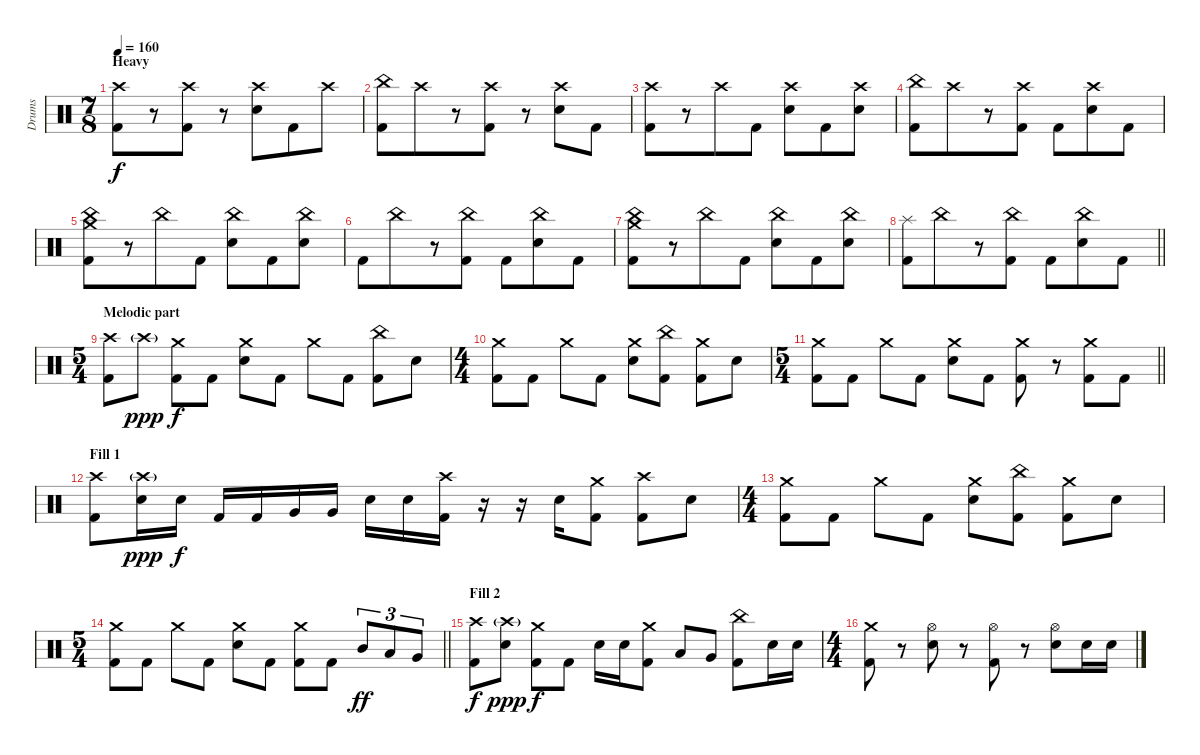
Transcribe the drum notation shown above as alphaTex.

\track ("Drums" "Drums") {instrument percussion}
\staff {score}
\articulation defaults
\ts (7 8)
\section ("" "Heavy")
\tempo 160
\clef neutral
\ks c
("Crash high (hit)" "Kick (hit) 2").8{dy f} r.8 ("Crash high (hit)" "Kick (hit) 2").8 r.8 ("Crash high (hit)" "Electric Snare (hit)").8 "Kick (hit) 2".8 "Crash high (hit)".8 |
("China (hit)" "Kick (hit) 2").8 "Crash high (hit)".8 r.8 ("Crash high (hit)" "Kick (hit) 2").8 r.8 ("Crash high (hit)" "Electric Snare (hit)").8 "Kick (hit) 2".8 |
("Crash high (hit)" "Kick (hit) 2").8 r.8 "Crash high (hit)".8 "Kick (hit) 2".8 ("Crash high (hit)" "Electric Snare (hit)").8 "Kick (hit) 2".8 ("Crash high (hit)" "Electric Snare (hit)").8 |
("China (hit)" "Kick (hit) 2").8 "Crash high (hit)".8 r.8 ("Crash high (hit)" "Kick (hit) 2").8 "Kick (hit) 2".8 ("Crash high (hit)" "Electric Snare (hit)").8 "Kick (hit) 2".8 |
("Crash medium (hit)" "China (hit)" "Kick (hit) 2").8 r.8 "China (hit)".8 "Kick (hit) 2".8 ("China (hit)" "Electric Snare (hit)").8 "Kick (hit) 2".8 ("China (hit)" "Electric Snare (hit)").8 |
"Kick (hit) 2".8 "China (hit)".8 r.8 ("China (hit)" "Kick (hit) 2").8 "Kick (hit) 2".8 ("China (hit)" "Electric Snare (hit)").8 "Kick (hit) 2".8 |
("Crash medium (hit)" "China (hit)" "Kick (hit) 2").8 r.8 "China (hit)".8 "Kick (hit) 2".8 ("China (hit)" "Electric Snare (hit)").8 "Kick (hit) 2".8 ("China (hit)" "Electric Snare (hit)").8 |
\barLineRight lightlight
("Splash (hit)" "Kick (hit) 2").8 "China (hit)".8 r.8 ("China (hit)" "Kick (hit) 2").8 "Kick (hit) 2".8 ("China (hit)" "Electric Snare (hit)").8 "Kick (hit) 2".8 |
\ts (5 4)
\section ("" "Melodic part")
("Crash high (hit)" "Kick (hit) 2").8 "Crash high (hit)"{g}.8{dy ppp} ("Crash medium (hit)" "Kick (hit) 2").8{dy f} "Kick (hit) 2".8 ("Crash medium (hit)" "Electric Snare (hit)").8 "Kick (hit) 2".8 "Crash medium (hit)".8 "Kick (hit) 2".8 ("China (hit)" "Kick (hit) 2").8 "Electric Snare (hit)".8 |
\ts (4 4)
("Crash medium (hit)" "Kick (hit) 2").8 "Kick (hit) 2".8 "Crash medium (hit)".8 "Kick (hit) 2".8 ("Crash medium (hit)" "Electric Snare (hit)").8 ("China (hit)" "Kick (hit) 2").8 ("Crash medium (hit)" "Kick (hit) 2").8 "Electric Snare (hit)".8 |
\ts (5 4)
\barLineRight lightlight
("Crash medium (hit)" "Kick (hit) 2").8 "Kick (hit) 2".8 "Crash medium (hit)".8 "Kick (hit) 2".8 ("Crash medium (hit)" "Electric Snare (hit)").8 "Kick (hit) 2".8 ("Crash medium (hit)" "Kick (hit) 2").8 r.8 ("Crash medium (hit)" "Kick (hit) 2").8 "Kick (hit) 2".8 |
\section ("" "Fill 1")
("Crash high (hit)" "Kick (hit) 2").8 ("Crash high (hit)"{g} "Electric Snare (hit)").16{dy ppp} "Electric Snare (hit)".16{dy f} "Kick (hit) 2".16 "Kick (hit) 2".16 "Very Low Tom (hit)".16 "Very Low Tom (hit)".16 "Electric Snare (hit)".16 "Electric Snare (hit)".16 ("Crash high (hit)" "Kick (hit) 2").16 r.16 r.16 "Electric Snare (hit)".16 ("Crash medium (hit)" "Kick (hit) 2").8 ("Crash high (hit)" "Kick (hit) 2").8 "Electric Snare (hit)".8 |
\ts (4 4)
("Crash medium (hit)" "Kick (hit) 2").8 "Kick (hit) 2".8 "Crash medium (hit)".8 "Kick (hit) 2".8 ("Crash medium (hit)" "Electric Snare (hit)").8 ("China (hit)" "Kick (hit) 2").8 ("Crash medium (hit)" "Kick (hit) 2").8 "Electric Snare (hit)".8 |
\ts (5 4)
\barLineRight lightlight
("Crash medium (hit)" "Kick (hit) 2").8 "Kick (hit) 2".8 "Crash medium (hit)".8 "Kick (hit) 2".8 ("Crash medium (hit)" "Electric Snare (hit)").8 "Kick (hit) 2".8 ("Crash medium (hit)" "Kick (hit) 2").8 "Kick (hit) 2".8 "Mid Tom (hit)".8{tu (3 2) dy ff} "Low Tom (hit)".8{tu (3 2)} "Very Low Tom (hit)".8{tu (3 2)} |
\section ("" "Fill 2")
("Crash high (hit)" "Kick (hit) 2").8{dy f} ("Crash high (hit)"{g} "Electric Snare (hit)").8{dy ppp} ("Crash medium (hit)" "Kick (hit) 2").8{dy f} "Kick (hit) 2".8 "Electric Snare (hit)".16 "Electric Snare (hit)".16 ("Crash medium (hit)" "Kick (hit) 2").8 "Low Tom (hit)".8 "Very Low Tom (hit)".8 ("China (hit)" "Kick (hit) 2").8 "Electric Snare (hit)".16 "Electric Snare (hit)".16 |
\ts (4 4)
("Crash medium (hit)" "Kick (hit) 2").8 r.8 ("Hi-Hat (open)" "Electric Snare (hit)").8 r.8 ("Hi-Hat (open)" "Kick (hit) 2").8 r.8 ("Hi-Hat (open)" "Electric Snare (hit)").8 "Electric Snare (hit)".16 "Electric Snare (hit)".16
